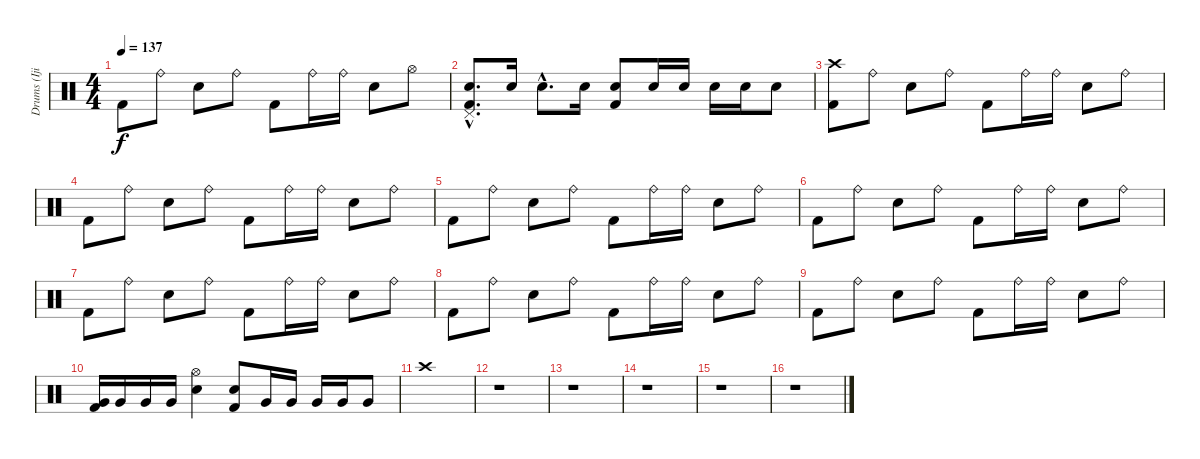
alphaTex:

\track ("Drums (Ijichi)" "Drums (Iji") {instrument percussion}
\staff {score}
\articulation defaults
\ts (4 4)
\tempo 137
\clef neutral
\ks c "Kick (hit) 2".8{dy f} "Ride (bell)".8 "Snare (hit) 2".8 "Ride (bell)".8 "Kick (hit) 2".8 "Ride (bell)".16 "Ride (bell)".16 "Snare (hit) 2".8 "Hi-Hat (open)".8
|
("Pedal Hi-Hat (hit)"{hac} "Snare (hit) 2"{hac} "Kick (hit) 2"{hac}).8{d} "Snare (hit) 2".16 "Snare (hit) 2"{hac}.8{d} "Snare (hit) 2".16 ("Snare (hit) 2" "Kick (hit) 2").8 "Snare (hit) 2".16 "Snare (hit) 2".16 "Snare (hit) 2".16 "Snare (hit) 2".16 "Snare (hit) 2".8 |
("Crash high (hit)" "Kick (hit) 2").8 "Ride (bell)".8 "Snare (hit) 2".8 "Ride (bell)".8 "Kick (hit) 2".8 "Ride (bell)".16 "Ride (bell)".16 "Snare (hit) 2".8 "Ride (bell)".8 |
"Kick (hit) 2".8 "Ride (bell)".8 "Snare (hit) 2".8 "Ride (bell)".8 "Kick (hit) 2".8 "Ride (bell)".16 "Ride (bell)".16 "Snare (hit) 2".8 "Ride (bell)".8 |
"Kick (hit) 2".8 "Ride (bell)".8 "Snare (hit) 2".8 "Ride (bell)".8 "Kick (hit) 2".8 "Ride (bell)".16 "Ride (bell)".16 "Snare (hit) 2".8 "Ride (bell)".8 |
"Kick (hit) 2".8 "Ride (bell)".8 "Snare (hit) 2".8 "Ride (bell)".8 "Kick (hit) 2".8 "Ride (bell)".16 "Ride (bell)".16 "Snare (hit) 2".8 "Ride (bell)".8 |
"Kick (hit) 2".8 "Ride (bell)".8 "Snare (hit) 2".8 "Ride (bell)".8 "Kick (hit) 2".8 "Ride (bell)".16 "Ride (bell)".16 "Snare (hit) 2".8 "Ride (bell)".8 |
"Kick (hit) 2".8 "Ride (bell)".8 "Snare (hit) 2".8 "Ride (bell)".8 "Kick (hit) 2".8 "Ride (bell)".16 "Ride (bell)".16 "Snare (hit) 2".8 "Ride (bell)".8 |
"Kick (hit) 2".8 "Ride (bell)".8 "Snare (hit) 2".8 "Ride (bell)".8 "Kick (hit) 2".8 "Ride (bell)".16 "Ride (bell)".16 "Snare (hit) 2".8 "Ride (bell)".8 |
("Very Low Tom (hit)" "Kick (hit) 2").16 "Very Low Tom (hit)".16 "Very Low Tom (hit)".16 "Very Low Tom (hit)".16 ("Hi-Hat (open)" "Snare (hit) 2").4 ("Snare (hit) 2" "Kick (hit) 2").8 "Very Low Tom (hit)".16 "Very Low Tom (hit)".16 "Very Low Tom (hit)".16 "Very Low Tom (hit)".16 "Very Low Tom (hit)".8 |
"Crash high (hit)".1 |
r.1 |
r.1 |
r.1 |
r.1 |
r.1
